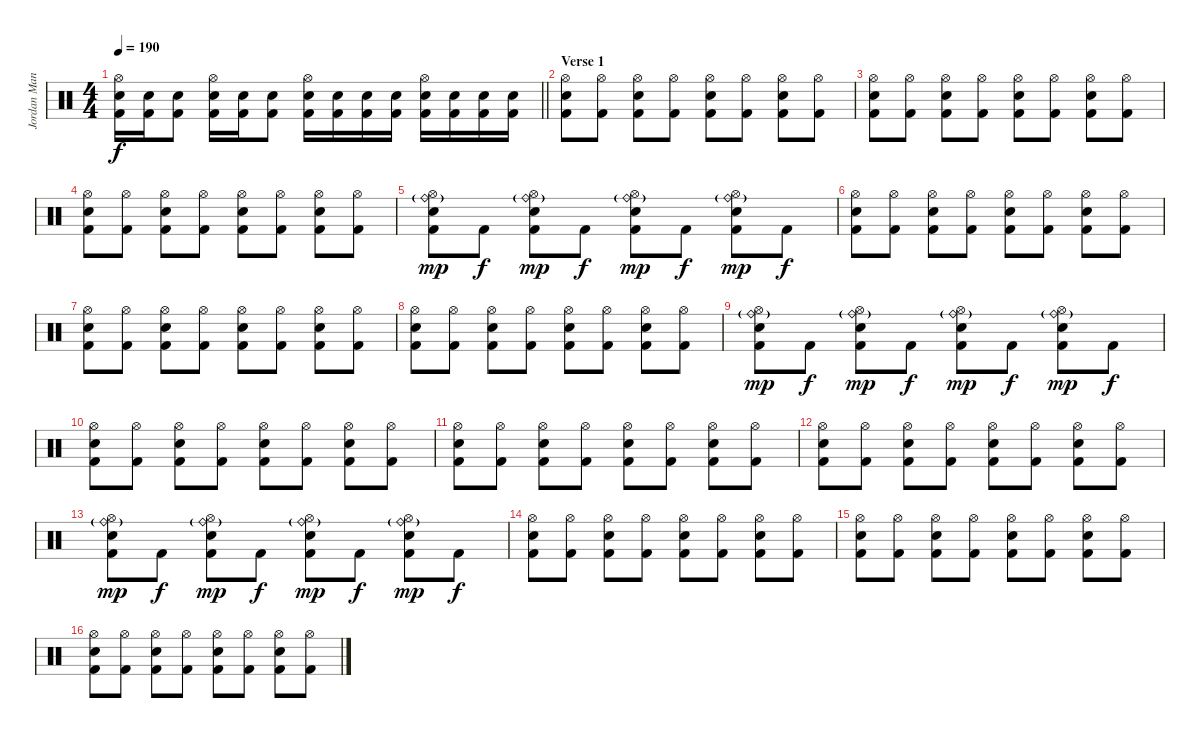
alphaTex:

\track ("Jordan Mancino" "Jordan Man") {instrument percussion}
\staff {score}
\articulation defaults
\ts (4 4)
\tempo 190
\clef neutral
\barLineRight lightlight
\ks c
("Hi-Hat (open)" "Snare (hit) 2" "Kick (hit) 2").16{dy f} ("Snare (hit) 2" "Kick (hit) 2").16 ("Snare (hit) 2" "Kick (hit) 2").8 ("Hi-Hat (open)" "Snare (hit) 2" "Kick (hit) 2").16 ("Snare (hit) 2" "Kick (hit) 2").16 ("Snare (hit) 2" "Kick (hit) 2").8 ("Hi-Hat (open)" "Snare (hit) 2" "Kick (hit) 2").16 ("Snare (hit) 2" "Kick (hit) 2").16 ("Snare (hit) 2" "Kick (hit) 2").16 ("Snare (hit) 2" "Kick (hit) 2").16 ("Hi-Hat (open)" "Snare (hit) 2" "Kick (hit) 2").16 ("Snare (hit) 2" "Kick (hit) 2").16 ("Snare (hit) 2" "Kick (hit) 2").16 ("Snare (hit) 2" "Kick (hit) 2").16 |
\section ("" "Verse 1")
("Hi-Hat (open)" "Snare (hit) 2" "Kick (hit) 2").8 ("Hi-Hat (open)" "Kick (hit) 2").8 ("Hi-Hat (open)" "Snare (hit) 2" "Kick (hit) 2").8 ("Hi-Hat (open)" "Kick (hit) 2").8 ("Hi-Hat (open)" "Snare (hit) 2" "Kick (hit) 2").8 ("Hi-Hat (open)" "Kick (hit) 2").8 ("Hi-Hat (open)" "Snare (hit) 2" "Kick (hit) 2").8 ("Hi-Hat (open)" "Kick (hit) 2").8 |
("Hi-Hat (open)" "Snare (hit) 2" "Kick (hit) 2").8 ("Hi-Hat (open)" "Kick (hit) 2").8 ("Hi-Hat (open)" "Snare (hit) 2" "Kick (hit) 2").8 ("Hi-Hat (open)" "Kick (hit) 2").8 ("Hi-Hat (open)" "Snare (hit) 2" "Kick (hit) 2").8 ("Hi-Hat (open)" "Kick (hit) 2").8 ("Hi-Hat (open)" "Snare (hit) 2" "Kick (hit) 2").8 ("Hi-Hat (open)" "Kick (hit) 2").8 |
("Hi-Hat (open)" "Snare (hit) 2" "Kick (hit) 2").8 ("Hi-Hat (open)" "Kick (hit) 2").8 ("Hi-Hat (open)" "Snare (hit) 2" "Kick (hit) 2").8 ("Hi-Hat (open)" "Kick (hit) 2").8 ("Hi-Hat (open)" "Snare (hit) 2" "Kick (hit) 2").8 ("Hi-Hat (open)" "Kick (hit) 2").8 ("Hi-Hat (open)" "Snare (hit) 2" "Kick (hit) 2").8 ("Hi-Hat (open)" "Kick (hit) 2").8 |
("Ride (bell)"{g} "Hi-Hat (open)" "Snare (hit) 2" "Kick (hit) 2").8{dy mp} "Kick (hit) 2".8{dy f} ("Ride (bell)"{g} "Hi-Hat (open)" "Snare (hit) 2" "Kick (hit) 2").8{dy mp} "Kick (hit) 2".8{dy f} ("Ride (bell)"{g} "Hi-Hat (open)" "Snare (hit) 2" "Kick (hit) 2").8{dy mp} "Kick (hit) 2".8{dy f} ("Ride (bell)"{g} "Hi-Hat (open)" "Snare (hit) 2" "Kick (hit) 2").8{dy mp} "Kick (hit) 2".8{dy f} |
("Hi-Hat (open)" "Snare (hit) 2" "Kick (hit) 2").8 ("Hi-Hat (open)" "Kick (hit) 2").8 ("Hi-Hat (open)" "Snare (hit) 2" "Kick (hit) 2").8 ("Hi-Hat (open)" "Kick (hit) 2").8 ("Hi-Hat (open)" "Snare (hit) 2" "Kick (hit) 2").8 ("Hi-Hat (open)" "Kick (hit) 2").8 ("Hi-Hat (open)" "Snare (hit) 2" "Kick (hit) 2").8 ("Hi-Hat (open)" "Kick (hit) 2").8 |
("Hi-Hat (open)" "Snare (hit) 2" "Kick (hit) 2").8 ("Hi-Hat (open)" "Kick (hit) 2").8 ("Hi-Hat (open)" "Snare (hit) 2" "Kick (hit) 2").8 ("Hi-Hat (open)" "Kick (hit) 2").8 ("Hi-Hat (open)" "Snare (hit) 2" "Kick (hit) 2").8 ("Hi-Hat (open)" "Kick (hit) 2").8 ("Hi-Hat (open)" "Snare (hit) 2" "Kick (hit) 2").8 ("Hi-Hat (open)" "Kick (hit) 2").8 |
("Hi-Hat (open)" "Snare (hit) 2" "Kick (hit) 2").8 ("Hi-Hat (open)" "Kick (hit) 2").8 ("Hi-Hat (open)" "Snare (hit) 2" "Kick (hit) 2").8 ("Hi-Hat (open)" "Kick (hit) 2").8 ("Hi-Hat (open)" "Snare (hit) 2" "Kick (hit) 2").8 ("Hi-Hat (open)" "Kick (hit) 2").8 ("Hi-Hat (open)" "Snare (hit) 2" "Kick (hit) 2").8 ("Hi-Hat (open)" "Kick (hit) 2").8 |
("Hi-Hat (open)" "Ride (bell)"{g} "Snare (hit) 2" "Kick (hit) 2").8{dy mp} "Kick (hit) 2".8{dy f} ("Hi-Hat (open)" "Ride (bell)"{g} "Snare (hit) 2" "Kick (hit) 2").8{dy mp} "Kick (hit) 2".8{dy f} ("Hi-Hat (open)" "Ride (bell)"{g} "Snare (hit) 2" "Kick (hit) 2").8{dy mp} "Kick (hit) 2".8{dy f} ("Hi-Hat (open)" "Ride (bell)"{g} "Snare (hit) 2" "Kick (hit) 2").8{dy mp} "Kick (hit) 2".8{dy f} |
("Hi-Hat (open)" "Snare (hit) 2" "Kick (hit) 2").8 ("Hi-Hat (open)" "Kick (hit) 2").8 ("Hi-Hat (open)" "Snare (hit) 2" "Kick (hit) 2").8 ("Hi-Hat (open)" "Kick (hit) 2").8 ("Hi-Hat (open)" "Snare (hit) 2" "Kick (hit) 2").8 ("Hi-Hat (open)" "Kick (hit) 2").8 ("Hi-Hat (open)" "Snare (hit) 2" "Kick (hit) 2").8 ("Hi-Hat (open)" "Kick (hit) 2").8 |
("Hi-Hat (open)" "Snare (hit) 2" "Kick (hit) 2").8 ("Hi-Hat (open)" "Kick (hit) 2").8 ("Hi-Hat (open)" "Snare (hit) 2" "Kick (hit) 2").8 ("Hi-Hat (open)" "Kick (hit) 2").8 ("Hi-Hat (open)" "Snare (hit) 2" "Kick (hit) 2").8 ("Hi-Hat (open)" "Kick (hit) 2").8 ("Hi-Hat (open)" "Snare (hit) 2" "Kick (hit) 2").8 ("Hi-Hat (open)" "Kick (hit) 2").8 |
("Hi-Hat (open)" "Snare (hit) 2" "Kick (hit) 2").8 ("Hi-Hat (open)" "Kick (hit) 2").8 ("Hi-Hat (open)" "Snare (hit) 2" "Kick (hit) 2").8 ("Hi-Hat (open)" "Kick (hit) 2").8 ("Hi-Hat (open)" "Snare (hit) 2" "Kick (hit) 2").8 ("Hi-Hat (open)" "Kick (hit) 2").8 ("Hi-Hat (open)" "Snare (hit) 2" "Kick (hit) 2").8 ("Hi-Hat (open)" "Kick (hit) 2").8 |
("Hi-Hat (open)" "Ride (bell)"{g} "Snare (hit) 2" "Kick (hit) 2").8{dy mp} "Kick (hit) 2".8{dy f} ("Hi-Hat (open)" "Ride (bell)"{g} "Snare (hit) 2" "Kick (hit) 2").8{dy mp} "Kick (hit) 2".8{dy f} ("Hi-Hat (open)" "Ride (bell)"{g} "Snare (hit) 2" "Kick (hit) 2").8{dy mp} "Kick (hit) 2".8{dy f} ("Hi-Hat (open)" "Ride (bell)"{g} "Snare (hit) 2" "Kick (hit) 2").8{dy mp} "Kick (hit) 2".8{dy f} |
("Hi-Hat (open)" "Snare (hit) 2" "Kick (hit) 2").8 ("Hi-Hat (open)" "Kick (hit) 2").8 ("Hi-Hat (open)" "Snare (hit) 2" "Kick (hit) 2").8 ("Hi-Hat (open)" "Kick (hit) 2").8 ("Hi-Hat (open)" "Snare (hit) 2" "Kick (hit) 2").8 ("Hi-Hat (open)" "Kick (hit) 2").8 ("Hi-Hat (open)" "Snare (hit) 2" "Kick (hit) 2").8 ("Hi-Hat (open)" "Kick (hit) 2").8 |
("Hi-Hat (open)" "Snare (hit) 2" "Kick (hit) 2").8 ("Hi-Hat (open)" "Kick (hit) 2").8 ("Hi-Hat (open)" "Snare (hit) 2" "Kick (hit) 2").8 ("Hi-Hat (open)" "Kick (hit) 2").8 ("Hi-Hat (open)" "Snare (hit) 2" "Kick (hit) 2").8 ("Hi-Hat (open)" "Kick (hit) 2").8 ("Hi-Hat (open)" "Snare (hit) 2" "Kick (hit) 2").8 ("Hi-Hat (open)" "Kick (hit) 2").8 |
("Hi-Hat (open)" "Snare (hit) 2" "Kick (hit) 2").8 ("Hi-Hat (open)" "Kick (hit) 2").8 ("Hi-Hat (open)" "Snare (hit) 2" "Kick (hit) 2").8 ("Hi-Hat (open)" "Kick (hit) 2").8 ("Hi-Hat (open)" "Snare (hit) 2" "Kick (hit) 2").8 ("Hi-Hat (open)" "Kick (hit) 2").8 ("Hi-Hat (open)" "Snare (hit) 2" "Kick (hit) 2").8 ("Hi-Hat (open)" "Kick (hit) 2").8
